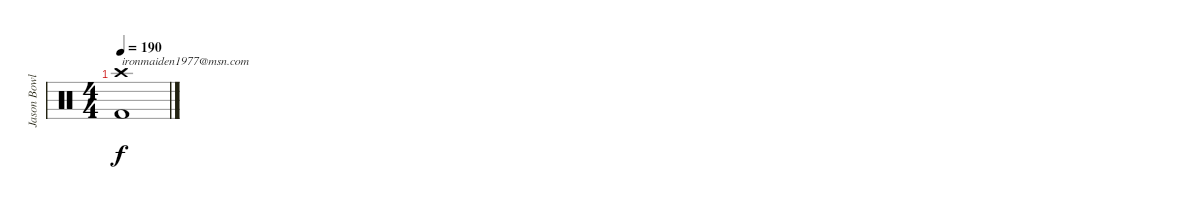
\track ("Jason Bowld" "Jason Bowl") {instrument percussion}
\staff {score}
\articulation defaults
\ts (4 4)
\tempo 190
\clef neutral
\ks c
("Crash high (hit)" "Kick (hit) 2").1{txt "ironmaiden1977@msn.com" dy f}
